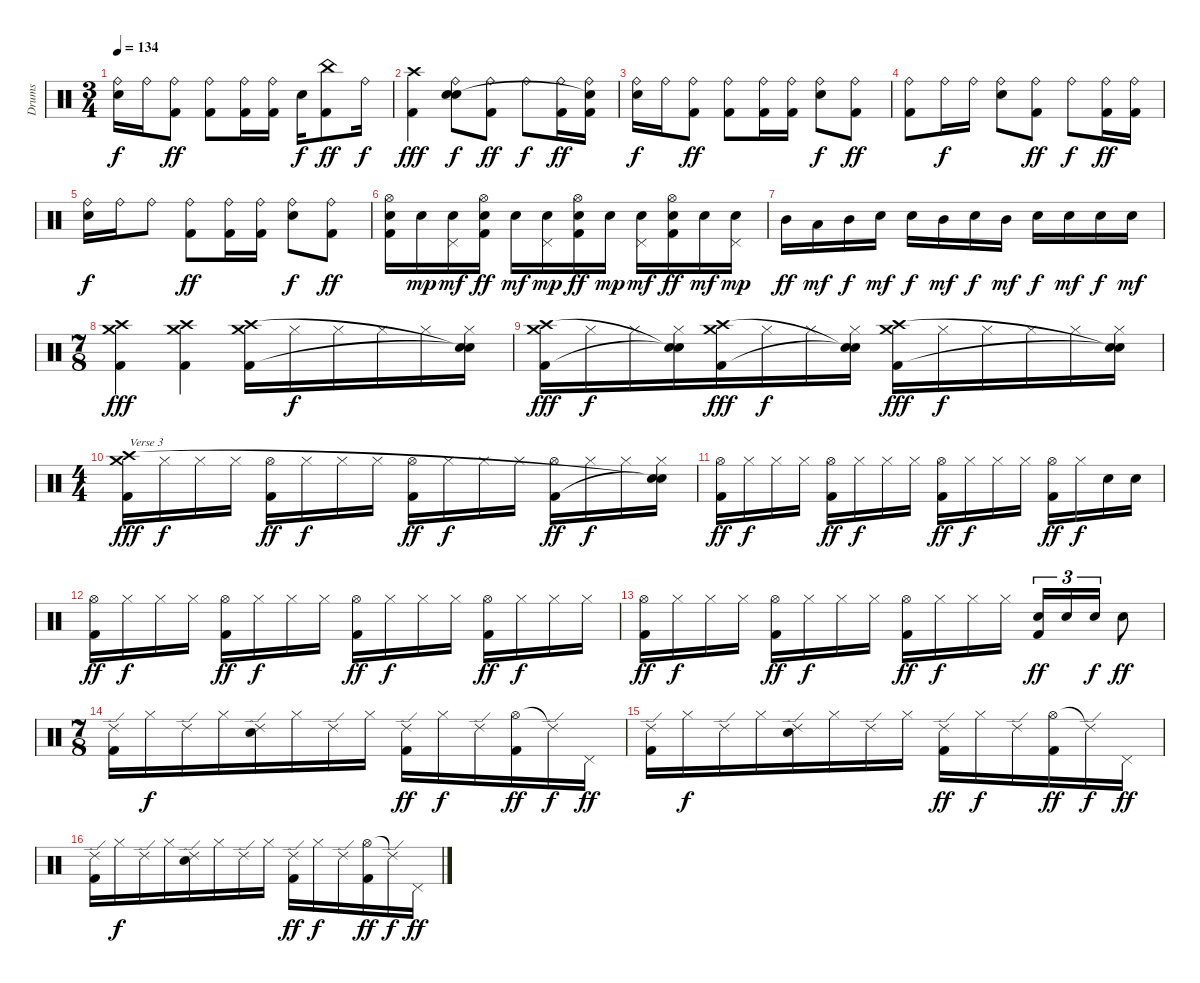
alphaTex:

\track ("Drums" "Drums") {instrument percussion}
\staff {score}
\articulation defaults
\ts (3 4)
\tempo 134
\clef neutral
\ks c
("Ride (bell)" "Snare (hit) 2").16{dy f} "Ride (bell)".16 ("Ride (bell)" "Kick (hit) 2").8{dy ff} ("Ride (bell)" "Kick (hit) 2").8 ("Ride (bell)" "Kick (hit) 2").16 ("Ride (bell)" "Kick (hit) 2").16 "Snare (hit) 2".16{dy f} ("China (hit)" "Kick (hit) 2").8{dy ff} "Ride (bell)".16{dy f} |
("Kick (hit) 2" "Crash high (hit)").4{dy fff} ("Ride (bell)" "Snare (hit) 2" "Snare (hit)").8{dy f} ("Ride (bell)" "Kick (hit) 2").8{dy ff} "Ride (bell)".8{dy f} ("Ride (bell)" "Kick (hit) 2").16{dy ff} ("Ride (bell)" "Kick (hit) 2" "Snare (hit)"{t}).16 |
("Ride (bell)" "Snare (hit) 2").16{dy f} "Ride (bell)".16 ("Ride (bell)" "Kick (hit) 2").8{dy ff} ("Ride (bell)" "Kick (hit) 2").8 ("Ride (bell)" "Kick (hit) 2").16 ("Ride (bell)" "Kick (hit) 2").16 ("Ride (bell)" "Snare (hit) 2").8{dy f} ("Ride (bell)" "Kick (hit) 2").8{dy ff} |
("Ride (bell)" "Kick (hit) 2").8 "Ride (bell)".16{dy f} "Ride (bell)".16 ("Ride (bell)" "Snare (hit) 2").8 ("Ride (bell)" "Kick (hit) 2").8{dy ff} "Ride (bell)".8{dy f} ("Ride (bell)" "Kick (hit) 2").16{dy ff} ("Ride (bell)" "Kick (hit) 2").16 |
("Ride (bell)" "Snare (hit) 2").16{dy f} "Ride (bell)".16 "Ride (bell)".8 ("Ride (bell)" "Kick (hit) 2").8{dy ff} ("Ride (bell)" "Kick (hit) 2").16 ("Ride (bell)" "Kick (hit) 2").16 ("Ride (bell)" "Snare (hit) 2").8{dy f} ("Ride (bell)" "Kick (hit) 2").8{dy ff} |
("Hi-Hat (open)" "Snare (hit) 2" "Kick (hit) 2").16 "Snare (hit) 2".16{dy mp} ("Pedal Hi-Hat (hit)" "Snare (hit) 2").16{dy mf} ("Hi-Hat (open)" "Snare (hit) 2" "Kick (hit) 2").16{dy ff} "Snare (hit) 2".16{dy mf} ("Pedal Hi-Hat (hit)" "Snare (hit) 2").16{dy mp} ("Hi-Hat (open)" "Snare (hit) 2" "Kick (hit) 2").16{dy ff} "Snare (hit) 2".16{dy mp} ("Pedal Hi-Hat (hit)" "Snare (hit) 2").16{dy mf} ("Hi-Hat (open)" "Snare (hit) 2" "Kick (hit) 2").16{dy ff} "Snare (hit) 2".16{dy mf} ("Pedal Hi-Hat (hit)" "Snare (hit) 2").16{dy mp} |
"Mid Tom (hit)".16{dy ff} "Low Tom (hit)".16{dy mf} "Mid Tom (hit)".16{dy f} "Snare (hit) 2".16{dy mf} "Snare (hit) 2".16{dy f} "Mid Tom (hit)".16{dy mf} "Snare (hit) 2".16{dy f} "Mid Tom (hit)".16{dy mf} "Snare (hit) 2".16{dy f} "Snare (hit) 2".16{dy mf} "Snare (hit) 2".16{dy f} "Snare (hit) 2".16{dy mf} |
\ts (7 8)
("Crash medium (hit)" "Kick (hit) 2" "Crash high (hit)").4{dy fff} ("Crash medium (hit)" "Kick (hit) 2" "Crash high (hit)").4 ("Crash medium (hit)" "Kick (hit) 2" "Crash high (hit)").16 "Hi-Hat (closed)".16{dy f} "Hi-Hat (closed)".16 "Hi-Hat (closed)".16 "Hi-Hat (closed)".16 ("Hi-Hat (closed)" "Snare (hit)"{t} "Snare (hit)"{t}).16 |
("Crash medium (hit)" "Kick (hit) 2" "Crash high (hit)").16{dy fff} "Hi-Hat (closed)".16{dy f} "Hi-Hat (closed)".16 ("Hi-Hat (closed)" "Snare (hit)"{t} "Snare (hit)"{t}).16 ("Crash medium (hit)" "Kick (hit) 2" "Crash high (hit)").16{dy fff} "Hi-Hat (closed)".16{dy f} "Hi-Hat (closed)".16 ("Hi-Hat (closed)" "Snare (hit)"{t} "Snare (hit)"{t}).16 ("Crash medium (hit)" "Kick (hit) 2" "Crash high (hit)").16{dy fff} "Hi-Hat (closed)".16{dy f} "Hi-Hat (closed)".16 "Hi-Hat (closed)".16 "Hi-Hat (closed)".16 ("Hi-Hat (closed)" "Snare (hit)"{t} "Snare (hit)"{t}).16 |
\ts (4 4)
("Crash medium (hit)" "Kick (hit) 2" "Crash high (hit)").16{txt "Verse 3" dy fff} "Hi-Hat (closed)".16{dy f} "Hi-Hat (closed)".16 "Hi-Hat (closed)".16 ("Hi-Hat (open)" "Kick (hit) 2").16{dy ff} "Hi-Hat (closed)".16{dy f} "Hi-Hat (closed)".16 "Hi-Hat (closed)".16 ("Hi-Hat (open)" "Kick (hit) 2").16{dy ff} "Hi-Hat (closed)".16{dy f} "Hi-Hat (closed)".16 "Hi-Hat (closed)".16 ("Hi-Hat (open)" "Kick (hit) 2").16{dy ff} "Hi-Hat (closed)".16{dy f} "Hi-Hat (closed)".16 ("Hi-Hat (closed)" "Snare (hit)"{t} "Snare (hit)"{t}).16 |
("Hi-Hat (open)" "Kick (hit) 2").16{dy ff} "Hi-Hat (closed)".16{dy f} "Hi-Hat (closed)".16 "Hi-Hat (closed)".16 ("Hi-Hat (open)" "Kick (hit) 2").16{dy ff} "Hi-Hat (closed)".16{dy f} "Hi-Hat (closed)".16 "Hi-Hat (closed)".16 ("Hi-Hat (open)" "Kick (hit) 2").16{dy ff} "Hi-Hat (closed)".16{dy f} "Hi-Hat (closed)".16 "Hi-Hat (closed)".16 ("Hi-Hat (open)" "Kick (hit) 2").16{dy ff} "Hi-Hat (closed)".16{dy f} "Snare (hit) 2".16 "Snare (hit) 2".16 |
("Hi-Hat (open)" "Kick (hit) 2").16{dy ff} "Hi-Hat (closed)".16{dy f} "Hi-Hat (closed)".16 "Hi-Hat (closed)".16 ("Hi-Hat (open)" "Kick (hit) 2").16{dy ff} "Hi-Hat (closed)".16{dy f} "Hi-Hat (closed)".16 "Hi-Hat (closed)".16 ("Hi-Hat (open)" "Kick (hit) 2").16{dy ff} "Hi-Hat (closed)".16{dy f} "Hi-Hat (closed)".16 "Hi-Hat (closed)".16 ("Hi-Hat (open)" "Kick (hit) 2").16{dy ff} "Hi-Hat (closed)".16{dy f} "Hi-Hat (closed)".16 "Hi-Hat (closed)".16 |
("Hi-Hat (open)" "Kick (hit) 2").16{dy ff} "Hi-Hat (closed)".16{dy f} "Hi-Hat (closed)".16 "Hi-Hat (closed)".16 ("Hi-Hat (open)" "Kick (hit) 2").16{dy ff} "Hi-Hat (closed)".16{dy f} "Hi-Hat (closed)".16 "Hi-Hat (closed)".16 ("Hi-Hat (open)" "Kick (hit) 2").16{dy ff} "Hi-Hat (closed)".16{dy f} "Hi-Hat (closed)".16 "Hi-Hat (closed)".16 ("Snare (hit) 2" "Kick (hit) 2").16{tu (3 2) dy ff} "Snare (hit) 2".16{tu (3 2)} "Snare (hit) 2".16{tu (3 2) dy f} "Snare (hit) 2".8{dy ff} |
\ts (7 8)
("Ride (edge) 2" "Kick (hit) 2").16 "Hi-Hat (closed)".16{dy f} "Ride (edge) 2".16 "Hi-Hat (closed)".16 ("Ride (edge) 2" "Snare (hit) 2").16 "Hi-Hat (closed)".16 "Ride (edge) 2".16 "Hi-Hat (closed)".16 ("Ride (edge) 2" "Kick (hit) 2").16{dy ff} "Hi-Hat (closed)".16{dy f} "Ride (edge) 2".16 ("Hi-Hat (open)" "Kick (hit) 2").16{dy ff} "Ride (edge) 2"{t}.16{dy f} "Pedal Hi-Hat (hit)".16{dy ff} |
("Ride (edge) 2" "Kick (hit) 2").16 "Hi-Hat (closed)".16{dy f} "Ride (edge) 2".16 "Hi-Hat (closed)".16 ("Ride (edge) 2" "Snare (hit) 2").16 "Hi-Hat (closed)".16 "Ride (edge) 2".16 "Hi-Hat (closed)".16 ("Ride (edge) 2" "Kick (hit) 2").16{dy ff} "Hi-Hat (closed)".16{dy f} "Ride (edge) 2".16 ("Hi-Hat (open)" "Kick (hit) 2").16{dy ff} "Ride (edge) 2"{t}.16{dy f} "Pedal Hi-Hat (hit)".16{dy ff} |
("Ride (edge) 2" "Kick (hit) 2").16 "Hi-Hat (closed)".16{dy f} "Ride (edge) 2".16 "Hi-Hat (closed)".16 ("Ride (edge) 2" "Snare (hit) 2").16 "Hi-Hat (closed)".16 "Ride (edge) 2".16 "Hi-Hat (closed)".16 ("Ride (edge) 2" "Kick (hit) 2").16{dy ff} "Hi-Hat (closed)".16{dy f} "Ride (edge) 2".16 ("Hi-Hat (open)" "Kick (hit) 2").16{dy ff} "Ride (edge) 2"{t}.16{dy f} "Pedal Hi-Hat (hit)".16{dy ff}
